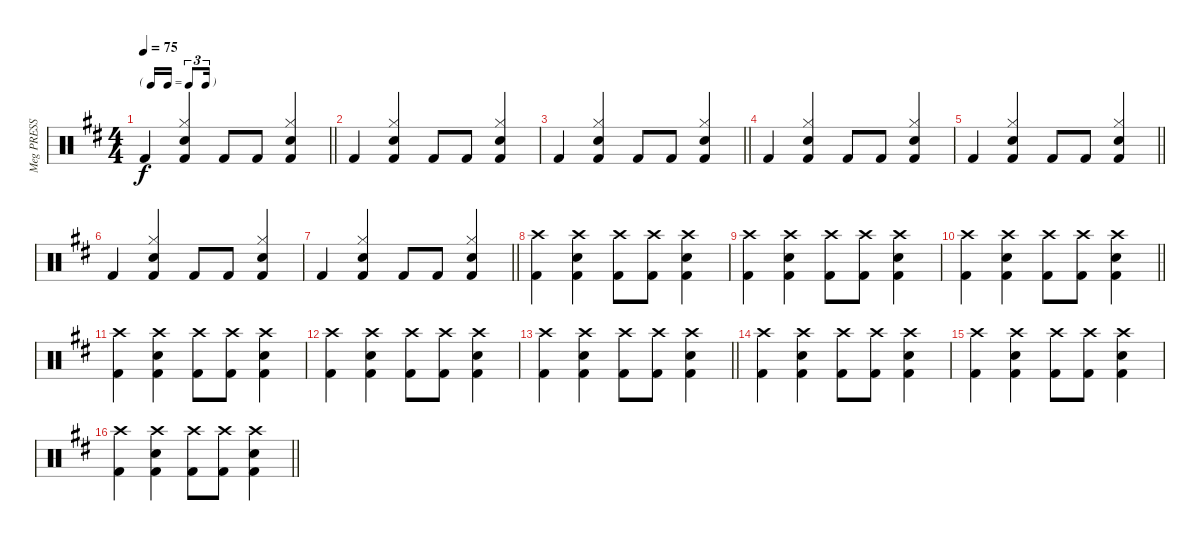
\track ("Meg PRESS F5!!" "Meg PRESS ") {instrument percussion}
\staff {score}
\articulation defaults
\ts (4 4)
\tf triplet16th
\tempo 75
\clef neutral
\barLineRight lightlight
\ks d "Kick (hit) 2".4{dy f}
("Kick (hit) 2" "Hi-Hat (closed)" "Snare (hit) 2").4 "Kick (hit) 2".8 "Kick (hit) 2".8 ("Kick (hit) 2" "Hi-Hat (closed)" "Snare (hit) 2").4 |
"Kick (hit) 2".4 ("Kick (hit) 2" "Hi-Hat (closed)" "Snare (hit) 2").4 "Kick (hit) 2".8 "Kick (hit) 2".8 ("Kick (hit) 2" "Hi-Hat (closed)" "Snare (hit) 2").4 |
\barLineRight lightlight "Kick (hit) 2".4
("Kick (hit) 2" "Hi-Hat (closed)" "Snare (hit) 2").4 "Kick (hit) 2".8 "Kick (hit) 2".8 ("Kick (hit) 2" "Hi-Hat (closed)" "Snare (hit) 2").4 |
"Kick (hit) 2".4 ("Kick (hit) 2" "Hi-Hat (closed)" "Snare (hit) 2").4 "Kick (hit) 2".8 "Kick (hit) 2".8 ("Kick (hit) 2" "Hi-Hat (closed)" "Snare (hit) 2").4 |
\barLineRight lightlight "Kick (hit) 2".4
("Kick (hit) 2" "Hi-Hat (closed)" "Snare (hit) 2").4 "Kick (hit) 2".8 "Kick (hit) 2".8 ("Kick (hit) 2" "Hi-Hat (closed)" "Snare (hit) 2").4 |
"Kick (hit) 2".4 ("Kick (hit) 2" "Hi-Hat (closed)" "Snare (hit) 2").4 "Kick (hit) 2".8 "Kick (hit) 2".8 ("Kick (hit) 2" "Hi-Hat (closed)" "Snare (hit) 2").4 |
\barLineRight lightlight "Kick (hit) 2".4
("Kick (hit) 2" "Hi-Hat (closed)" "Snare (hit) 2").4 "Kick (hit) 2".8 "Kick (hit) 2".8 ("Kick (hit) 2" "Hi-Hat (closed)" "Snare (hit) 2").4 |
("Kick (hit) 2" "Crash high (hit)").4 ("Kick (hit) 2" "Crash high (hit)" "Snare (hit) 2").4 ("Kick (hit) 2" "Crash high (hit)").8 ("Kick (hit) 2" "Crash high (hit)").8 ("Kick (hit) 2" "Crash high (hit)" "Snare (hit) 2").4 |
("Kick (hit) 2" "Crash high (hit)").4 ("Kick (hit) 2" "Crash high (hit)" "Snare (hit) 2").4 ("Kick (hit) 2" "Crash high (hit)").8 ("Kick (hit) 2" "Crash high (hit)").8 ("Kick (hit) 2" "Crash high (hit)" "Snare (hit) 2").4 |
\barLineRight lightlight
("Kick (hit) 2" "Crash high (hit)").4 ("Kick (hit) 2" "Crash high (hit)" "Snare (hit) 2").4 ("Kick (hit) 2" "Crash high (hit)").8 ("Kick (hit) 2" "Crash high (hit)").8 ("Kick (hit) 2" "Crash high (hit)" "Snare (hit) 2").4 |
("Kick (hit) 2" "Crash high (hit)").4 ("Kick (hit) 2" "Crash high (hit)" "Snare (hit) 2").4 ("Kick (hit) 2" "Crash high (hit)").8 ("Kick (hit) 2" "Crash high (hit)").8 ("Kick (hit) 2" "Crash high (hit)" "Snare (hit) 2").4 |
("Kick (hit) 2" "Crash high (hit)").4 ("Kick (hit) 2" "Crash high (hit)" "Snare (hit) 2").4 ("Kick (hit) 2" "Crash high (hit)").8 ("Kick (hit) 2" "Crash high (hit)").8 ("Kick (hit) 2" "Crash high (hit)" "Snare (hit) 2").4 |
\barLineRight lightlight
("Kick (hit) 2" "Crash high (hit)").4 ("Kick (hit) 2" "Crash high (hit)" "Snare (hit) 2").4 ("Kick (hit) 2" "Crash high (hit)").8 ("Kick (hit) 2" "Crash high (hit)").8 ("Kick (hit) 2" "Crash high (hit)" "Snare (hit) 2").4 |
("Kick (hit) 2" "Crash high (hit)").4 ("Kick (hit) 2" "Crash high (hit)" "Snare (hit) 2").4 ("Kick (hit) 2" "Crash high (hit)").8 ("Kick (hit) 2" "Crash high (hit)").8 ("Kick (hit) 2" "Crash high (hit)" "Snare (hit) 2").4 |
("Kick (hit) 2" "Crash high (hit)").4 ("Kick (hit) 2" "Crash high (hit)" "Snare (hit) 2").4 ("Kick (hit) 2" "Crash high (hit)").8 ("Kick (hit) 2" "Crash high (hit)").8 ("Kick (hit) 2" "Crash high (hit)" "Snare (hit) 2").4 |
\barLineRight lightlight
("Kick (hit) 2" "Crash high (hit)").4 ("Kick (hit) 2" "Crash high (hit)" "Snare (hit) 2").4 ("Kick (hit) 2" "Crash high (hit)").8 ("Kick (hit) 2" "Crash high (hit)").8 ("Kick (hit) 2" "Crash high (hit)" "Snare (hit) 2").4
